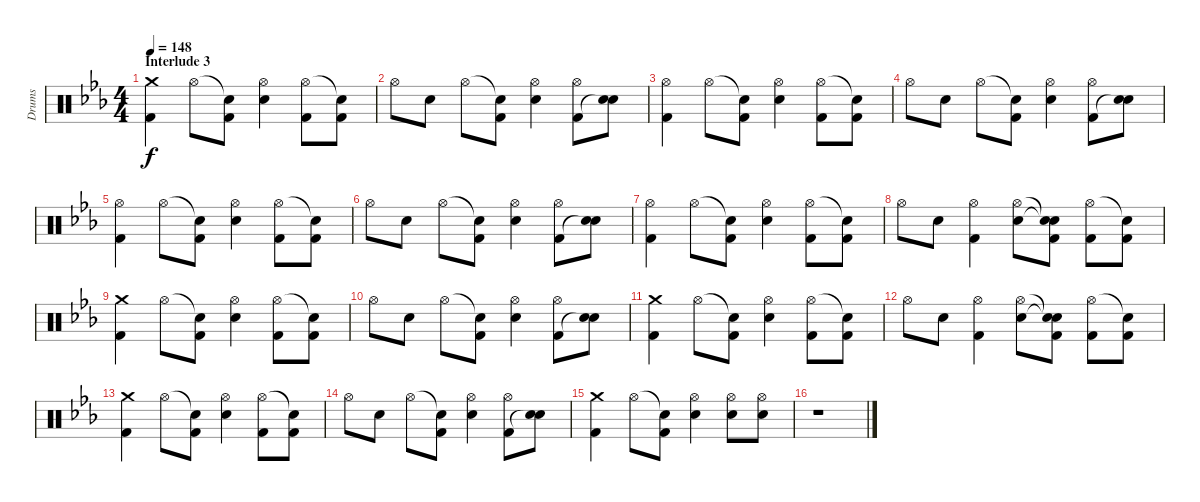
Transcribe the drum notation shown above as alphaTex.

\track ("Drums" "Drums") {instrument percussion}
\staff {score}
\articulation defaults
\ts (4 4)
\section ("" "Interlude 3")
\tempo 148
\clef neutral
\ks eb
("Crash medium (hit)" "Kick (hit) 2").4{dy f} "Hi-Hat (open)".8 ("Snare (hit)"{t} "Kick (hit) 2").8 ("Hi-Hat (open)" "Electric Snare (hit)").4 ("Hi-Hat (open)" "Kick (hit) 2").8 ("Snare (hit)"{t} "Kick (hit) 2").8 |
"Hi-Hat (open)".8 "Electric Snare (hit)".8 "Hi-Hat (open)".8 ("Snare (hit)"{t} "Kick (hit) 2").8 ("Hi-Hat (open)" "Electric Snare (hit)").4 ("Hi-Hat (open)" "Kick (hit) 2").8 ("Electric Snare (hit)" "Snare (hit)"{t}).8 |
("Hi-Hat (open)" "Kick (hit) 2").4 "Hi-Hat (open)".8 ("Snare (hit)"{t} "Kick (hit) 2").8 ("Hi-Hat (open)" "Electric Snare (hit)").4 ("Hi-Hat (open)" "Kick (hit) 2").8 ("Snare (hit)"{t} "Kick (hit) 2").8 |
"Hi-Hat (open)".8 "Electric Snare (hit)".8 "Hi-Hat (open)".8 ("Snare (hit)"{t} "Kick (hit) 2").8 ("Hi-Hat (open)" "Electric Snare (hit)").4 ("Hi-Hat (open)" "Kick (hit) 2").8 ("Electric Snare (hit)" "Snare (hit)"{t}).8 |
("Hi-Hat (open)" "Kick (hit) 2").4 "Hi-Hat (open)".8 ("Snare (hit)"{t} "Kick (hit) 2").8 ("Hi-Hat (open)" "Electric Snare (hit)").4 ("Hi-Hat (open)" "Kick (hit) 2").8 ("Snare (hit)"{t} "Kick (hit) 2").8 |
"Hi-Hat (open)".8 "Electric Snare (hit)".8 "Hi-Hat (open)".8 ("Snare (hit)"{t} "Kick (hit) 2").8 ("Hi-Hat (open)" "Electric Snare (hit)").4 ("Hi-Hat (open)" "Kick (hit) 2").8 ("Electric Snare (hit)" "Snare (hit)"{t}).8 |
("Hi-Hat (open)" "Kick (hit) 2").4 "Hi-Hat (open)".8 ("Snare (hit)"{t} "Kick (hit) 2").8 ("Hi-Hat (open)" "Electric Snare (hit)").4 ("Hi-Hat (open)" "Kick (hit) 2").8 ("Snare (hit)"{t} "Kick (hit) 2").8 |
"Hi-Hat (open)".8 "Electric Snare (hit)".8 ("Hi-Hat (open)" "Kick (hit) 2").4 ("Hi-Hat (open)" "Electric Snare (hit)").8 ("Snare (hit)"{t} "Snare (hit)"{t} "Kick (hit) 2").8 ("Hi-Hat (open)" "Kick (hit) 2").8 ("Snare (hit)"{t} "Kick (hit) 2").8 |
("Crash medium (hit)" "Kick (hit) 2").4 "Hi-Hat (open)".8 ("Snare (hit)"{t} "Kick (hit) 2").8 ("Hi-Hat (open)" "Electric Snare (hit)").4 ("Hi-Hat (open)" "Kick (hit) 2").8 ("Snare (hit)"{t} "Kick (hit) 2").8 |
"Hi-Hat (open)".8 "Electric Snare (hit)".8 "Hi-Hat (open)".8 ("Snare (hit)"{t} "Kick (hit) 2").8 ("Hi-Hat (open)" "Electric Snare (hit)").4 ("Hi-Hat (open)" "Kick (hit) 2").8 ("Electric Snare (hit)" "Snare (hit)"{t}).8 |
("Crash medium (hit)" "Kick (hit) 2").4 "Hi-Hat (open)".8 ("Snare (hit)"{t} "Kick (hit) 2").8 ("Hi-Hat (open)" "Electric Snare (hit)").4 ("Hi-Hat (open)" "Kick (hit) 2").8 ("Snare (hit)"{t} "Kick (hit) 2").8 |
"Hi-Hat (open)".8 "Electric Snare (hit)".8 ("Hi-Hat (open)" "Kick (hit) 2").4 ("Hi-Hat (open)" "Electric Snare (hit)").8 ("Snare (hit)"{t} "Snare (hit)"{t} "Kick (hit) 2").8 ("Hi-Hat (open)" "Kick (hit) 2").8 ("Snare (hit)"{t} "Kick (hit) 2").8 |
("Crash medium (hit)" "Kick (hit) 2").4 "Hi-Hat (open)".8 ("Snare (hit)"{t} "Kick (hit) 2").8 ("Hi-Hat (open)" "Electric Snare (hit)").4 ("Hi-Hat (open)" "Kick (hit) 2").8 ("Snare (hit)"{t} "Kick (hit) 2").8 |
"Hi-Hat (open)".8 "Electric Snare (hit)".8 "Hi-Hat (open)".8 ("Snare (hit)"{t} "Kick (hit) 2").8 ("Hi-Hat (open)" "Electric Snare (hit)").4 ("Hi-Hat (open)" "Kick (hit) 2").8 ("Electric Snare (hit)" "Snare (hit)"{t}).8 |
("Crash medium (hit)" "Kick (hit) 2").4 "Hi-Hat (open)".8 ("Snare (hit)"{t} "Kick (hit) 2").8 ("Hi-Hat (open)" "Electric Snare (hit)").4 ("Hi-Hat (open)" "Electric Snare (hit)").8 ("Hi-Hat (open)" "Electric Snare (hit)").8 |
r.1
